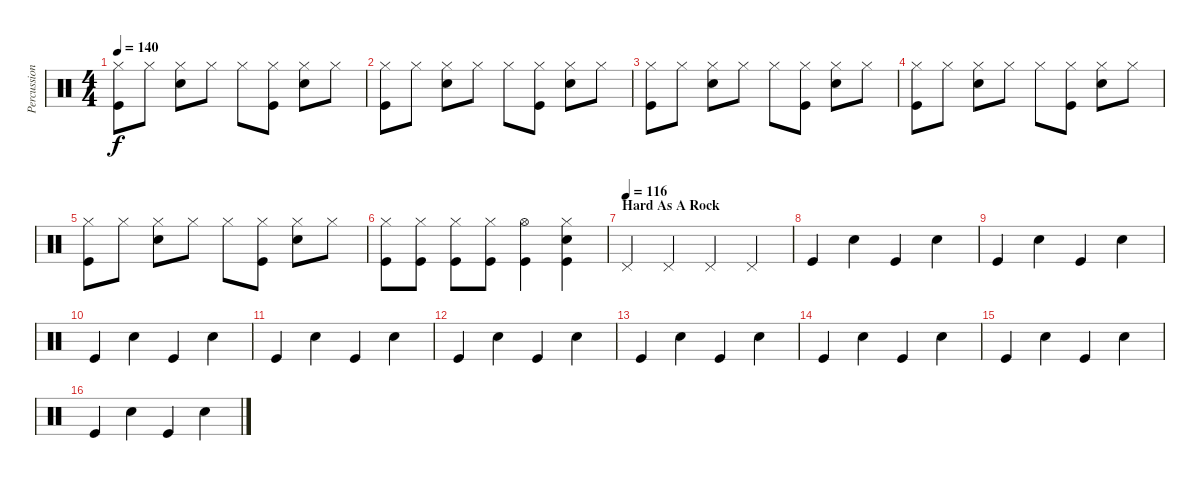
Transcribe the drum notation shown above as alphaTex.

\track ("Percussions" "Percussion") {instrument percussion}
\staff {score}
\articulation defaults
\ts (4 4)
\tempo 140
\clef neutral
\ks c
("Hi-Hat (closed)" "Kick (hit)").8{dy f} "Hi-Hat (closed)".8 ("Hi-Hat (closed)" "Snare (hit) 2").8 "Hi-Hat (closed)".8 "Hi-Hat (closed)".8 ("Hi-Hat (closed)" "Kick (hit)").8 ("Hi-Hat (closed)" "Snare (hit) 2").8 "Hi-Hat (closed)".8 |
("Hi-Hat (closed)" "Kick (hit)").8 "Hi-Hat (closed)".8 ("Hi-Hat (closed)" "Snare (hit) 2").8 "Hi-Hat (closed)".8 "Hi-Hat (closed)".8 ("Hi-Hat (closed)" "Kick (hit)").8 ("Hi-Hat (closed)" "Snare (hit) 2").8 "Hi-Hat (closed)".8 |
("Hi-Hat (closed)" "Kick (hit)").8 "Hi-Hat (closed)".8 ("Hi-Hat (closed)" "Snare (hit) 2").8 "Hi-Hat (closed)".8 "Hi-Hat (closed)".8 ("Hi-Hat (closed)" "Kick (hit)").8 ("Hi-Hat (closed)" "Snare (hit) 2").8 "Hi-Hat (closed)".8 |
("Hi-Hat (closed)" "Kick (hit)").8 "Hi-Hat (closed)".8 ("Hi-Hat (closed)" "Snare (hit) 2").8 "Hi-Hat (closed)".8 "Hi-Hat (closed)".8 ("Hi-Hat (closed)" "Kick (hit)").8 ("Hi-Hat (closed)" "Snare (hit) 2").8 "Hi-Hat (closed)".8 |
("Hi-Hat (closed)" "Kick (hit)").8 "Hi-Hat (closed)".8 ("Hi-Hat (closed)" "Snare (hit) 2").8 "Hi-Hat (closed)".8 "Hi-Hat (closed)".8 ("Hi-Hat (closed)" "Kick (hit)").8 ("Hi-Hat (closed)" "Snare (hit) 2").8 "Hi-Hat (closed)".8 |
("Hi-Hat (closed)" "Kick (hit)").8 ("Hi-Hat (closed)" "Kick (hit)").8 ("Hi-Hat (closed)" "Kick (hit)").8 ("Hi-Hat (closed)" "Kick (hit)").8 ("Hi-Hat (open)" "Kick (hit)").4 ("Hi-Hat (closed)" "Snare (hit) 2" "Kick (hit)").4 |
\section ("" "Hard As A Rock")
\tempo (116)
"Pedal Hi-Hat (hit)".4 "Pedal Hi-Hat (hit)".4 "Pedal Hi-Hat (hit)".4 "Pedal Hi-Hat (hit)".4 |
"Kick (hit)".4 "Snare (hit) 2".4 "Kick (hit)".4 "Snare (hit) 2".4 |
"Kick (hit)".4 "Snare (hit) 2".4 "Kick (hit)".4 "Snare (hit) 2".4 |
"Kick (hit)".4 "Snare (hit) 2".4 "Kick (hit)".4 "Snare (hit) 2".4 |
"Kick (hit)".4 "Snare (hit) 2".4 "Kick (hit)".4 "Snare (hit) 2".4 |
"Kick (hit)".4 "Snare (hit) 2".4 "Kick (hit)".4 "Snare (hit) 2".4 |
"Kick (hit)".4 "Snare (hit) 2".4 "Kick (hit)".4 "Snare (hit) 2".4 |
"Kick (hit)".4 "Snare (hit) 2".4 "Kick (hit)".4 "Snare (hit) 2".4 |
"Kick (hit)".4 "Snare (hit) 2".4 "Kick (hit)".4 "Snare (hit) 2".4 |
"Kick (hit)".4 "Snare (hit) 2".4 "Kick (hit)".4 "Snare (hit) 2".4
